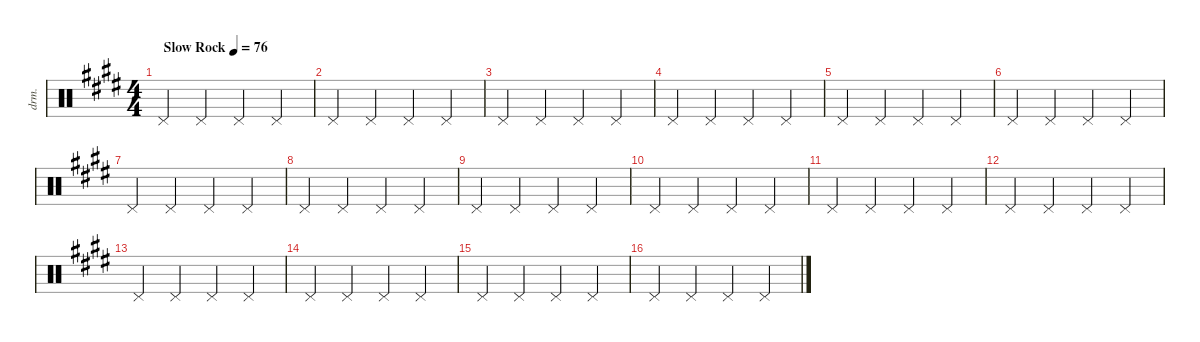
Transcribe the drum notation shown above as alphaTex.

\defaultSystemsLayout 4
\hideDynamics
\bracketExtendMode nobrackets
\otherSystemsTrackNameOrientation horizontal
\track ("Drums" "drm.") {instrument percussion}
\staff {score}
\articulation defaults
\ts (4 4)
\beaming (8 2 2 2 2)
\tempo (76 "Slow Rock")
\clef neutral
\ks c#minor "Pedal Hi-Hat (hit)"{acc forcenatural}.4{dy f} "Pedal Hi-Hat (hit)"{acc forcenatural}.4 "Pedal Hi-Hat (hit)"{acc forcenatural}.4 "Pedal Hi-Hat (hit)"{acc forcenatural}.4
|
"Pedal Hi-Hat (hit)"{acc forcenatural}.4 "Pedal Hi-Hat (hit)"{acc forcenatural}.4 "Pedal Hi-Hat (hit)"{acc forcenatural}.4 "Pedal Hi-Hat (hit)"{acc forcenatural}.4 |
"Pedal Hi-Hat (hit)"{acc forcenatural}.4 "Pedal Hi-Hat (hit)"{acc forcenatural}.4 "Pedal Hi-Hat (hit)"{acc forcenatural}.4 "Pedal Hi-Hat (hit)"{acc forcenatural}.4 |
"Pedal Hi-Hat (hit)"{acc forcenatural}.4 "Pedal Hi-Hat (hit)"{acc forcenatural}.4 "Pedal Hi-Hat (hit)"{acc forcenatural}.4 "Pedal Hi-Hat (hit)"{acc forcenatural}.4 |
"Pedal Hi-Hat (hit)"{acc forcenatural}.4 "Pedal Hi-Hat (hit)"{acc forcenatural}.4 "Pedal Hi-Hat (hit)"{acc forcenatural}.4 "Pedal Hi-Hat (hit)"{acc forcenatural}.4 |
"Pedal Hi-Hat (hit)"{acc forcenatural}.4 "Pedal Hi-Hat (hit)"{acc forcenatural}.4 "Pedal Hi-Hat (hit)"{acc forcenatural}.4 "Pedal Hi-Hat (hit)"{acc forcenatural}.4 |
"Pedal Hi-Hat (hit)"{acc forcenatural}.4 "Pedal Hi-Hat (hit)"{acc forcenatural}.4 "Pedal Hi-Hat (hit)"{acc forcenatural}.4 "Pedal Hi-Hat (hit)"{acc forcenatural}.4 |
"Pedal Hi-Hat (hit)"{acc forcenatural}.4 "Pedal Hi-Hat (hit)"{acc forcenatural}.4 "Pedal Hi-Hat (hit)"{acc forcenatural}.4 "Pedal Hi-Hat (hit)"{acc forcenatural}.4 |
"Pedal Hi-Hat (hit)"{acc forcenatural}.4 "Pedal Hi-Hat (hit)"{acc forcenatural}.4 "Pedal Hi-Hat (hit)"{acc forcenatural}.4 "Pedal Hi-Hat (hit)"{acc forcenatural}.4 |
"Pedal Hi-Hat (hit)"{acc forcenatural}.4 "Pedal Hi-Hat (hit)"{acc forcenatural}.4 "Pedal Hi-Hat (hit)"{acc forcenatural}.4 "Pedal Hi-Hat (hit)"{acc forcenatural}.4 |
"Pedal Hi-Hat (hit)"{acc forcenatural}.4 "Pedal Hi-Hat (hit)"{acc forcenatural}.4 "Pedal Hi-Hat (hit)"{acc forcenatural}.4 "Pedal Hi-Hat (hit)"{acc forcenatural}.4 |
"Pedal Hi-Hat (hit)"{acc forcenatural}.4 "Pedal Hi-Hat (hit)"{acc forcenatural}.4 "Pedal Hi-Hat (hit)"{acc forcenatural}.4 "Pedal Hi-Hat (hit)"{acc forcenatural}.4 |
"Pedal Hi-Hat (hit)"{acc forcenatural}.4 "Pedal Hi-Hat (hit)"{acc forcenatural}.4 "Pedal Hi-Hat (hit)"{acc forcenatural}.4 "Pedal Hi-Hat (hit)"{acc forcenatural}.4 |
"Pedal Hi-Hat (hit)"{acc forcenatural}.4 "Pedal Hi-Hat (hit)"{acc forcenatural}.4 "Pedal Hi-Hat (hit)"{acc forcenatural}.4 "Pedal Hi-Hat (hit)"{acc forcenatural}.4 |
"Pedal Hi-Hat (hit)"{acc forcenatural}.4 "Pedal Hi-Hat (hit)"{acc forcenatural}.4 "Pedal Hi-Hat (hit)"{acc forcenatural}.4 "Pedal Hi-Hat (hit)"{acc forcenatural}.4 |
"Pedal Hi-Hat (hit)"{acc forcenatural}.4 "Pedal Hi-Hat (hit)"{acc forcenatural}.4 "Pedal Hi-Hat (hit)"{acc forcenatural}.4 "Pedal Hi-Hat (hit)"{acc forcenatural}.4
